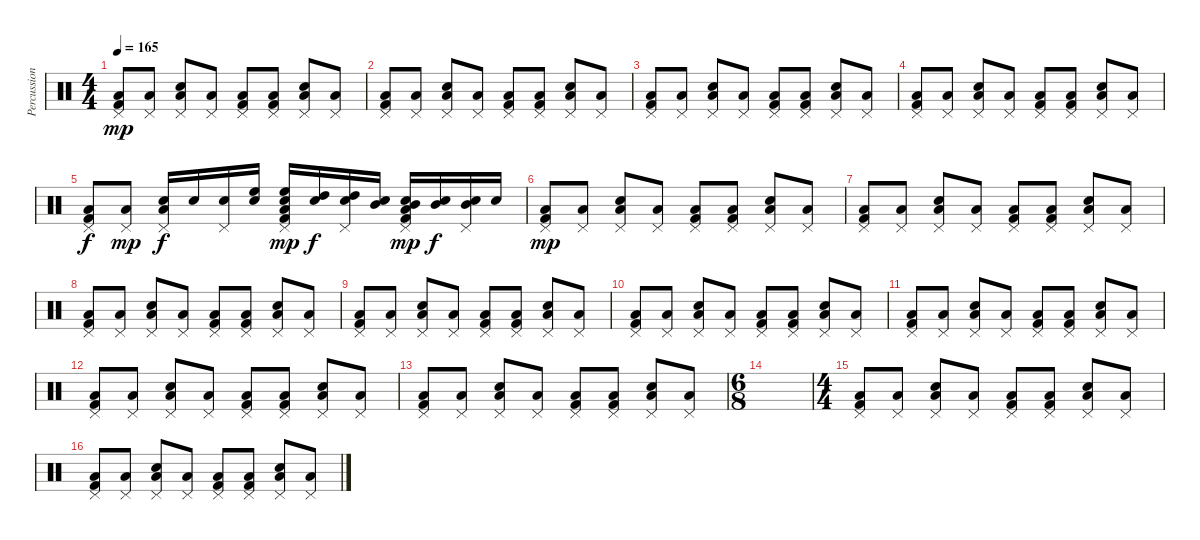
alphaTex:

\track ("Percussion" "Percussion") {instrument percussion}
\staff {score}
\articulation defaults
\ts (4 4)
\tempo 165
\clef neutral
\ks c
("Low Floor Tom (hit)" "Kick (hit) 2" "Pedal Hi-Hat (hit)").8{dy mp} ("Low Floor Tom (hit)" "Pedal Hi-Hat (hit)").8 ("Low Floor Tom (hit)" "Electric Snare (hit)" "Pedal Hi-Hat (hit)").8 ("Low Floor Tom (hit)" "Pedal Hi-Hat (hit)").8 ("Low Floor Tom (hit)" "Kick (hit) 2" "Pedal Hi-Hat (hit)").8 ("Low Floor Tom (hit)" "Kick (hit) 2" "Pedal Hi-Hat (hit)").8 ("Low Floor Tom (hit)" "Electric Snare (hit)" "Pedal Hi-Hat (hit)").8 ("Low Floor Tom (hit)" "Pedal Hi-Hat (hit)").8 |
("Low Floor Tom (hit)" "Kick (hit) 2" "Pedal Hi-Hat (hit)").8 ("Low Floor Tom (hit)" "Pedal Hi-Hat (hit)").8 ("Low Floor Tom (hit)" "Electric Snare (hit)" "Pedal Hi-Hat (hit)").8 ("Low Floor Tom (hit)" "Pedal Hi-Hat (hit)").8 ("Low Floor Tom (hit)" "Kick (hit) 2" "Pedal Hi-Hat (hit)").8 ("Low Floor Tom (hit)" "Kick (hit) 2" "Pedal Hi-Hat (hit)").8 ("Low Floor Tom (hit)" "Electric Snare (hit)" "Pedal Hi-Hat (hit)").8 ("Low Floor Tom (hit)" "Pedal Hi-Hat (hit)").8 |
("Low Floor Tom (hit)" "Kick (hit) 2" "Pedal Hi-Hat (hit)").8 ("Low Floor Tom (hit)" "Pedal Hi-Hat (hit)").8 ("Low Floor Tom (hit)" "Electric Snare (hit)" "Pedal Hi-Hat (hit)").8 ("Low Floor Tom (hit)" "Pedal Hi-Hat (hit)").8 ("Low Floor Tom (hit)" "Kick (hit) 2" "Pedal Hi-Hat (hit)").8 ("Low Floor Tom (hit)" "Kick (hit) 2" "Pedal Hi-Hat (hit)").8 ("Low Floor Tom (hit)" "Electric Snare (hit)" "Pedal Hi-Hat (hit)").8 ("Low Floor Tom (hit)" "Pedal Hi-Hat (hit)").8 |
("Low Floor Tom (hit)" "Kick (hit) 2" "Pedal Hi-Hat (hit)").8 ("Low Floor Tom (hit)" "Pedal Hi-Hat (hit)").8 ("Low Floor Tom (hit)" "Electric Snare (hit)" "Pedal Hi-Hat (hit)").8 ("Low Floor Tom (hit)" "Pedal Hi-Hat (hit)").8 ("Low Floor Tom (hit)" "Kick (hit) 2" "Pedal Hi-Hat (hit)").8 ("Low Floor Tom (hit)" "Kick (hit) 2" "Pedal Hi-Hat (hit)").8 ("Low Floor Tom (hit)" "Electric Snare (hit)" "Pedal Hi-Hat (hit)").8 ("Low Floor Tom (hit)" "Pedal Hi-Hat (hit)").8 |
("Low Floor Tom (hit)" "Kick (hit) 2" "Pedal Hi-Hat (hit)").8{dy f} ("Low Floor Tom (hit)" "Pedal Hi-Hat (hit)").8{dy mp} ("Electric Snare (hit)" "Low Floor Tom (hit)" "Pedal Hi-Hat (hit)").16{dy f} "Electric Snare (hit)".16 ("Electric Snare (hit)" "Pedal Hi-Hat (hit)").16 ("Electric Snare (hit)" "High Floor Tom (hit)").16 ("Electric Snare (hit)" "Kick (hit) 2" "High Floor Tom (hit)" "Low Floor Tom (hit)" "Pedal Hi-Hat (hit)").16{dy mp} ("Electric Snare (hit)" "High Tom (hit)").16{dy f} ("Electric Snare (hit)" "High Tom (hit)" "Pedal Hi-Hat (hit)").16 ("Electric Snare (hit)" "Mid Tom (hit)").16 ("Electric Snare (hit)" "Kick (hit) 2" "Mid Tom (hit)" "Low Floor Tom (hit)" "Pedal Hi-Hat (hit)").16{dy mp} ("Electric Snare (hit)" "Mid Tom (hit)").16{dy f} ("Electric Snare (hit)" "Mid Tom (hit)" "Pedal Hi-Hat (hit)").16 "Electric Snare (hit)".16 |
("Low Floor Tom (hit)" "Kick (hit) 2" "Pedal Hi-Hat (hit)").8{dy mp} ("Low Floor Tom (hit)" "Pedal Hi-Hat (hit)").8 ("Low Floor Tom (hit)" "Electric Snare (hit)" "Pedal Hi-Hat (hit)").8 ("Low Floor Tom (hit)" "Pedal Hi-Hat (hit)").8 ("Low Floor Tom (hit)" "Kick (hit) 2" "Pedal Hi-Hat (hit)").8 ("Low Floor Tom (hit)" "Kick (hit) 2" "Pedal Hi-Hat (hit)").8 ("Low Floor Tom (hit)" "Electric Snare (hit)" "Pedal Hi-Hat (hit)").8 ("Low Floor Tom (hit)" "Pedal Hi-Hat (hit)").8 |
("Low Floor Tom (hit)" "Kick (hit) 2" "Pedal Hi-Hat (hit)").8 ("Low Floor Tom (hit)" "Pedal Hi-Hat (hit)").8 ("Low Floor Tom (hit)" "Electric Snare (hit)" "Pedal Hi-Hat (hit)").8 ("Low Floor Tom (hit)" "Pedal Hi-Hat (hit)").8 ("Low Floor Tom (hit)" "Kick (hit) 2" "Pedal Hi-Hat (hit)").8 ("Low Floor Tom (hit)" "Kick (hit) 2" "Pedal Hi-Hat (hit)").8 ("Low Floor Tom (hit)" "Electric Snare (hit)" "Pedal Hi-Hat (hit)").8 ("Low Floor Tom (hit)" "Pedal Hi-Hat (hit)").8 |
("Low Floor Tom (hit)" "Kick (hit) 2" "Pedal Hi-Hat (hit)").8 ("Low Floor Tom (hit)" "Pedal Hi-Hat (hit)").8 ("Low Floor Tom (hit)" "Electric Snare (hit)" "Pedal Hi-Hat (hit)").8 ("Low Floor Tom (hit)" "Pedal Hi-Hat (hit)").8 ("Low Floor Tom (hit)" "Kick (hit) 2" "Pedal Hi-Hat (hit)").8 ("Low Floor Tom (hit)" "Kick (hit) 2" "Pedal Hi-Hat (hit)").8 ("Low Floor Tom (hit)" "Electric Snare (hit)" "Pedal Hi-Hat (hit)").8 ("Low Floor Tom (hit)" "Pedal Hi-Hat (hit)").8 |
("Low Floor Tom (hit)" "Kick (hit) 2" "Pedal Hi-Hat (hit)").8 ("Low Floor Tom (hit)" "Pedal Hi-Hat (hit)").8 ("Low Floor Tom (hit)" "Electric Snare (hit)" "Pedal Hi-Hat (hit)").8 ("Low Floor Tom (hit)" "Pedal Hi-Hat (hit)").8 ("Low Floor Tom (hit)" "Kick (hit) 2" "Pedal Hi-Hat (hit)").8 ("Low Floor Tom (hit)" "Kick (hit) 2" "Pedal Hi-Hat (hit)").8 ("Low Floor Tom (hit)" "Electric Snare (hit)" "Pedal Hi-Hat (hit)").8 ("Low Floor Tom (hit)" "Pedal Hi-Hat (hit)").8 |
("Low Floor Tom (hit)" "Kick (hit) 2" "Pedal Hi-Hat (hit)").8 ("Low Floor Tom (hit)" "Pedal Hi-Hat (hit)").8 ("Low Floor Tom (hit)" "Electric Snare (hit)" "Pedal Hi-Hat (hit)").8 ("Low Floor Tom (hit)" "Pedal Hi-Hat (hit)").8 ("Low Floor Tom (hit)" "Kick (hit) 2" "Pedal Hi-Hat (hit)").8 ("Low Floor Tom (hit)" "Kick (hit) 2" "Pedal Hi-Hat (hit)").8 ("Low Floor Tom (hit)" "Electric Snare (hit)" "Pedal Hi-Hat (hit)").8 ("Low Floor Tom (hit)" "Pedal Hi-Hat (hit)").8 |
("Low Floor Tom (hit)" "Kick (hit) 2" "Pedal Hi-Hat (hit)").8 ("Low Floor Tom (hit)" "Pedal Hi-Hat (hit)").8 ("Low Floor Tom (hit)" "Electric Snare (hit)" "Pedal Hi-Hat (hit)").8 ("Low Floor Tom (hit)" "Pedal Hi-Hat (hit)").8 ("Low Floor Tom (hit)" "Kick (hit) 2" "Pedal Hi-Hat (hit)").8 ("Low Floor Tom (hit)" "Kick (hit) 2" "Pedal Hi-Hat (hit)").8 ("Low Floor Tom (hit)" "Electric Snare (hit)" "Pedal Hi-Hat (hit)").8 ("Low Floor Tom (hit)" "Pedal Hi-Hat (hit)").8 |
("Low Floor Tom (hit)" "Kick (hit) 2" "Pedal Hi-Hat (hit)").8 ("Low Floor Tom (hit)" "Pedal Hi-Hat (hit)").8 ("Low Floor Tom (hit)" "Electric Snare (hit)" "Pedal Hi-Hat (hit)").8 ("Low Floor Tom (hit)" "Pedal Hi-Hat (hit)").8 ("Low Floor Tom (hit)" "Kick (hit) 2" "Pedal Hi-Hat (hit)").8 ("Low Floor Tom (hit)" "Kick (hit) 2" "Pedal Hi-Hat (hit)").8 ("Low Floor Tom (hit)" "Electric Snare (hit)" "Pedal Hi-Hat (hit)").8 ("Low Floor Tom (hit)" "Pedal Hi-Hat (hit)").8 |
("Low Floor Tom (hit)" "Kick (hit) 2" "Pedal Hi-Hat (hit)").8 ("Low Floor Tom (hit)" "Pedal Hi-Hat (hit)").8 ("Low Floor Tom (hit)" "Electric Snare (hit)" "Pedal Hi-Hat (hit)").8 ("Low Floor Tom (hit)" "Pedal Hi-Hat (hit)").8 ("Low Floor Tom (hit)" "Kick (hit) 2" "Pedal Hi-Hat (hit)").8 ("Low Floor Tom (hit)" "Kick (hit) 2" "Pedal Hi-Hat (hit)").8 ("Low Floor Tom (hit)" "Electric Snare (hit)" "Pedal Hi-Hat (hit)").8 ("Low Floor Tom (hit)" "Pedal Hi-Hat (hit)").8 |
\ts (6 8)
|
\ts (4 4)
("Low Floor Tom (hit)" "Kick (hit) 2" "Pedal Hi-Hat (hit)").8 ("Low Floor Tom (hit)" "Pedal Hi-Hat (hit)").8 ("Low Floor Tom (hit)" "Electric Snare (hit)" "Pedal Hi-Hat (hit)").8 ("Low Floor Tom (hit)" "Pedal Hi-Hat (hit)").8 ("Low Floor Tom (hit)" "Kick (hit) 2" "Pedal Hi-Hat (hit)").8 ("Low Floor Tom (hit)" "Kick (hit) 2" "Pedal Hi-Hat (hit)").8 ("Low Floor Tom (hit)" "Electric Snare (hit)" "Pedal Hi-Hat (hit)").8 ("Low Floor Tom (hit)" "Pedal Hi-Hat (hit)").8 |
("Low Floor Tom (hit)" "Kick (hit) 2" "Pedal Hi-Hat (hit)").8 ("Low Floor Tom (hit)" "Pedal Hi-Hat (hit)").8 ("Low Floor Tom (hit)" "Electric Snare (hit)" "Pedal Hi-Hat (hit)").8 ("Low Floor Tom (hit)" "Pedal Hi-Hat (hit)").8 ("Low Floor Tom (hit)" "Kick (hit) 2" "Pedal Hi-Hat (hit)").8 ("Low Floor Tom (hit)" "Kick (hit) 2" "Pedal Hi-Hat (hit)").8 ("Low Floor Tom (hit)" "Electric Snare (hit)" "Pedal Hi-Hat (hit)").8 ("Low Floor Tom (hit)" "Pedal Hi-Hat (hit)").8
